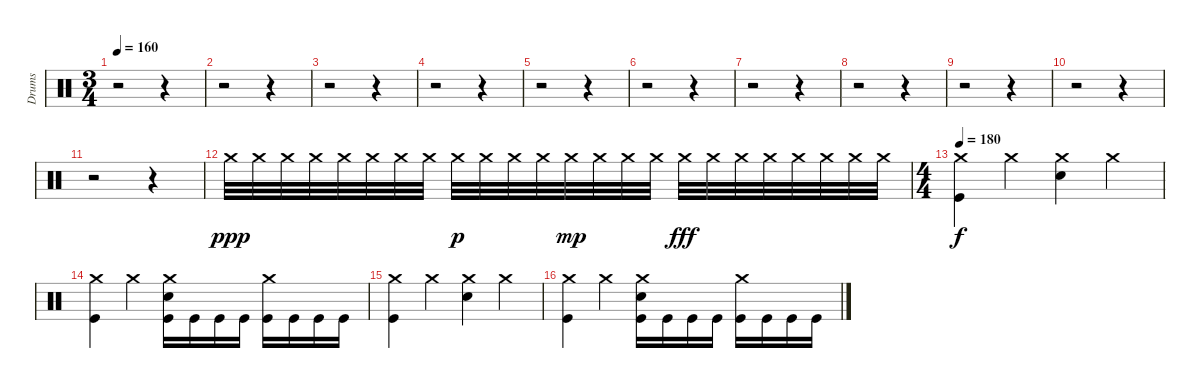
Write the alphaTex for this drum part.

\track ("Drums" "Drums") {instrument percussion}
\staff {score}
\articulation defaults
\ts (3 4)
\tempo 160
\clef neutral
\ks c
r.2{dy ppp} r.4 |
r.2 r.4 |
r.2 r.4 |
r.2 r.4 |
r.2 r.4 |
r.2 r.4 |
r.2 r.4 |
r.2 r.4 |
r.2 r.4 |
r.2 r.4 |
r.2 r.4 |
"Crash medium (hit)".32 "Crash medium (hit)".32 "Crash medium (hit)".32 "Crash medium (hit)".32 "Crash medium (hit)".32 "Crash medium (hit)".32 "Crash medium (hit)".32 "Crash medium (hit)".32 "Crash medium (hit)".32{dy p} "Crash medium (hit)".32 "Crash medium (hit)".32 "Crash medium (hit)".32 "Crash medium (hit)".32{dy mp} "Crash medium (hit)".32 "Crash medium (hit)".32 "Crash medium (hit)".32 "Crash medium (hit)".32{dy fff} "Crash medium (hit)".32 "Crash medium (hit)".32 "Crash medium (hit)".32 "Crash medium (hit)".32 "Crash medium (hit)".32 "Crash medium (hit)".32 "Crash medium (hit)".32 |
\ts (4 4)
\tempo 180
("Crash medium (hit)" "Kick (hit)").4{dy f} "Crash medium (hit)".4 ("Crash medium (hit)" "Electric Snare (hit)").4 "Crash medium (hit)".4 |
("Crash medium (hit)" "Kick (hit)").4 "Crash medium (hit)".4 ("Crash medium (hit)" "Kick (hit)" "Electric Snare (hit)").16 "Kick (hit)".16 "Kick (hit)".16 "Kick (hit)".16 ("Crash medium (hit)" "Kick (hit)").16 "Kick (hit)".16 "Kick (hit)".16 "Kick (hit)".16 |
("Crash medium (hit)" "Kick (hit)").4 "Crash medium (hit)".4 ("Crash medium (hit)" "Electric Snare (hit)").4 "Crash medium (hit)".4 |
("Crash medium (hit)" "Kick (hit)").4 "Crash medium (hit)".4 ("Crash medium (hit)" "Kick (hit)" "Electric Snare (hit)").16 "Kick (hit)".16 "Kick (hit)".16 "Kick (hit)".16 ("Crash medium (hit)" "Kick (hit)").16 "Kick (hit)".16 "Kick (hit)".16 "Kick (hit)".16
